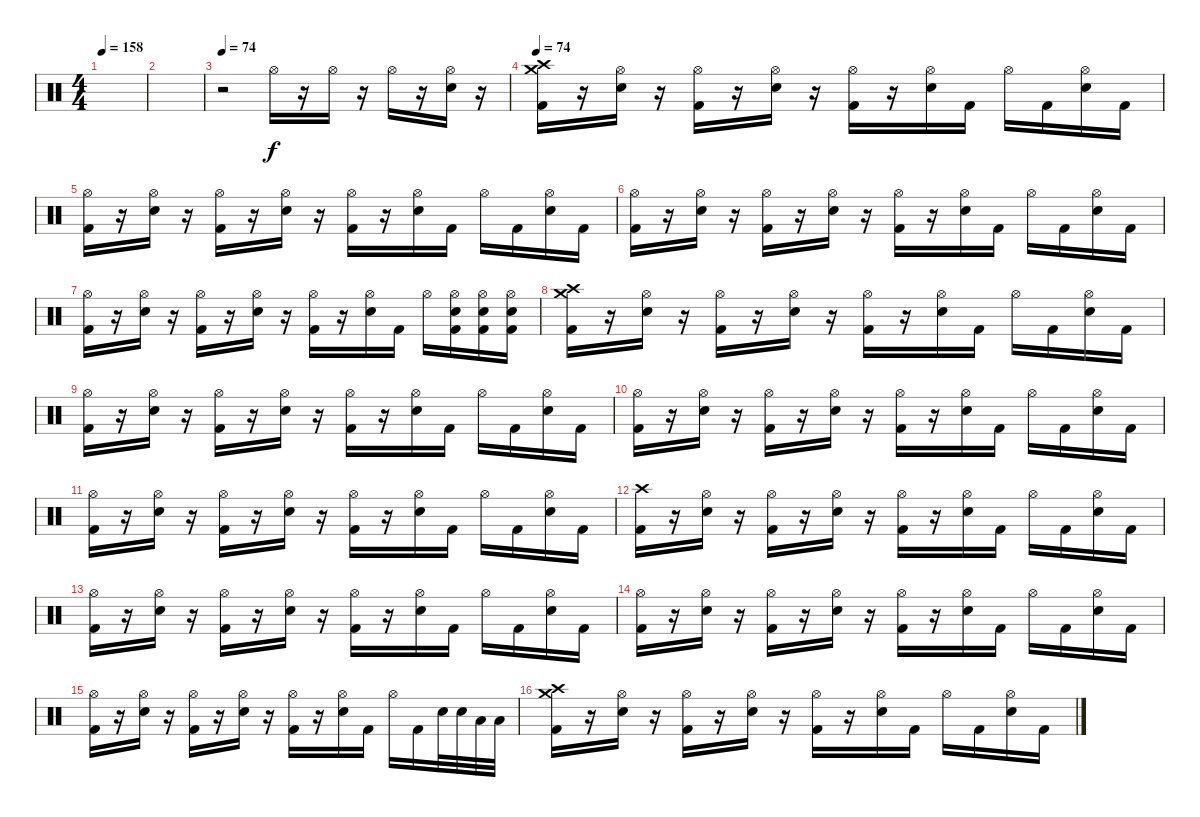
\track "" {instrument percussion}
\staff {score}
\articulation defaults
\ts (4 4)
\tempo 158
\clef neutral
\ks c
|
|
\tempo 74
r.2 "Hi-Hat (open)".16 r.16 "Hi-Hat (open)".16 r.16 "Hi-Hat (open)".16 r.16 ("Hi-Hat (open)" "Electric Snare (hit)").16 r.16 |
\section ("" "")
\tempo 74
("Crash high (hit)" "Crash medium (hit)" "Kick (hit) 2").16 r.16 ("Hi-Hat (open)" "Electric Snare (hit)").16 r.16 ("Hi-Hat (open)" "Kick (hit) 2").16 r.16 ("Hi-Hat (open)" "Electric Snare (hit)").16 r.16 ("Hi-Hat (open)" "Kick (hit) 2").16 r.16 ("Hi-Hat (open)" "Electric Snare (hit)").16 "Kick (hit) 2".16 "Hi-Hat (open)".16 "Kick (hit) 2".16 ("Hi-Hat (open)" "Electric Snare (hit)").16 "Kick (hit) 2".16 |
("Hi-Hat (open)" "Kick (hit) 2").16 r.16 ("Hi-Hat (open)" "Electric Snare (hit)").16 r.16 ("Hi-Hat (open)" "Kick (hit) 2").16 r.16 ("Hi-Hat (open)" "Electric Snare (hit)").16 r.16 ("Hi-Hat (open)" "Kick (hit) 2").16 r.16 ("Hi-Hat (open)" "Electric Snare (hit)").16 "Kick (hit) 2".16 "Hi-Hat (open)".16 "Kick (hit) 2".16 ("Hi-Hat (open)" "Electric Snare (hit)").16 "Kick (hit) 2".16 |
("Hi-Hat (open)" "Kick (hit) 2").16 r.16 ("Hi-Hat (open)" "Electric Snare (hit)").16 r.16 ("Hi-Hat (open)" "Kick (hit) 2").16 r.16 ("Hi-Hat (open)" "Electric Snare (hit)").16 r.16 ("Hi-Hat (open)" "Kick (hit) 2").16 r.16 ("Hi-Hat (open)" "Electric Snare (hit)").16 "Kick (hit) 2".16 "Hi-Hat (open)".16 "Kick (hit) 2".16 ("Hi-Hat (open)" "Electric Snare (hit)").16 "Kick (hit) 2".16 |
("Hi-Hat (open)" "Kick (hit) 2").16 r.16 ("Hi-Hat (open)" "Electric Snare (hit)").16 r.16 ("Hi-Hat (open)" "Kick (hit) 2").16 r.16 ("Hi-Hat (open)" "Electric Snare (hit)").16 r.16 ("Hi-Hat (open)" "Kick (hit) 2").16 r.16 ("Hi-Hat (open)" "Electric Snare (hit)").16 "Kick (hit) 2".16 "Hi-Hat (open)".16 ("Hi-Hat (open)" "Electric Snare (hit)" "Kick (hit) 2").16 ("Hi-Hat (open)" "Electric Snare (hit)" "Kick (hit) 2").16 ("Hi-Hat (open)" "Electric Snare (hit)" "Kick (hit) 2").16 |
("Crash high (hit)" "Crash medium (hit)" "Kick (hit) 2").16 r.16 ("Hi-Hat (open)" "Electric Snare (hit)").16 r.16 ("Hi-Hat (open)" "Kick (hit) 2").16 r.16 ("Hi-Hat (open)" "Electric Snare (hit)").16 r.16 ("Hi-Hat (open)" "Kick (hit) 2").16 r.16 ("Hi-Hat (open)" "Electric Snare (hit)").16 "Kick (hit) 2".16 "Hi-Hat (open)".16 "Kick (hit) 2".16 ("Hi-Hat (open)" "Electric Snare (hit)").16 "Kick (hit) 2".16 |
("Hi-Hat (open)" "Kick (hit) 2").16 r.16 ("Hi-Hat (open)" "Electric Snare (hit)").16 r.16 ("Hi-Hat (open)" "Kick (hit) 2").16 r.16 ("Hi-Hat (open)" "Electric Snare (hit)").16 r.16 ("Hi-Hat (open)" "Kick (hit) 2").16 r.16 ("Hi-Hat (open)" "Electric Snare (hit)").16 "Kick (hit) 2".16 "Hi-Hat (open)".16 "Kick (hit) 2".16 ("Hi-Hat (open)" "Electric Snare (hit)").16 "Kick (hit) 2".16 |
("Hi-Hat (open)" "Kick (hit) 2").16 r.16 ("Hi-Hat (open)" "Electric Snare (hit)").16 r.16 ("Hi-Hat (open)" "Kick (hit) 2").16 r.16 ("Hi-Hat (open)" "Electric Snare (hit)").16 r.16 ("Hi-Hat (open)" "Kick (hit) 2").16 r.16 ("Hi-Hat (open)" "Electric Snare (hit)").16 "Kick (hit) 2".16 "Hi-Hat (open)".16 "Kick (hit) 2".16 ("Hi-Hat (open)" "Electric Snare (hit)").16 "Kick (hit) 2".16 |
("Hi-Hat (open)" "Kick (hit) 2").16 r.16 ("Hi-Hat (open)" "Electric Snare (hit)").16 r.16 ("Hi-Hat (open)" "Kick (hit) 2").16 r.16 ("Hi-Hat (open)" "Electric Snare (hit)").16 r.16 ("Hi-Hat (open)" "Kick (hit) 2").16 r.16 ("Hi-Hat (open)" "Electric Snare (hit)").16 "Kick (hit) 2".16 "Hi-Hat (open)".16 "Kick (hit) 2".16 ("Hi-Hat (open)" "Electric Snare (hit)").16 "Kick (hit) 2".16 |
("Crash high (hit)" "Kick (hit) 2").16 r.16 ("Hi-Hat (open)" "Electric Snare (hit)").16 r.16 ("Hi-Hat (open)" "Kick (hit) 2").16 r.16 ("Hi-Hat (open)" "Electric Snare (hit)").16 r.16 ("Hi-Hat (open)" "Kick (hit) 2").16 r.16 ("Hi-Hat (open)" "Electric Snare (hit)").16 "Kick (hit) 2".16 "Hi-Hat (open)".16 "Kick (hit) 2".16 ("Hi-Hat (open)" "Electric Snare (hit)").16 "Kick (hit) 2".16 |
("Hi-Hat (open)" "Kick (hit) 2").16 r.16 ("Hi-Hat (open)" "Electric Snare (hit)").16 r.16 ("Hi-Hat (open)" "Kick (hit) 2").16 r.16 ("Hi-Hat (open)" "Electric Snare (hit)").16 r.16 ("Hi-Hat (open)" "Kick (hit) 2").16 r.16 ("Hi-Hat (open)" "Electric Snare (hit)").16 "Kick (hit) 2".16 "Hi-Hat (open)".16 "Kick (hit) 2".16 ("Hi-Hat (open)" "Electric Snare (hit)").16 "Kick (hit) 2".16 |
("Hi-Hat (open)" "Kick (hit) 2").16 r.16 ("Hi-Hat (open)" "Electric Snare (hit)").16 r.16 ("Hi-Hat (open)" "Kick (hit) 2").16 r.16 ("Hi-Hat (open)" "Electric Snare (hit)").16 r.16 ("Hi-Hat (open)" "Kick (hit) 2").16 r.16 ("Hi-Hat (open)" "Electric Snare (hit)").16 "Kick (hit) 2".16 "Hi-Hat (open)".16 "Kick (hit) 2".16 ("Hi-Hat (open)" "Electric Snare (hit)").16 "Kick (hit) 2".16 |
("Hi-Hat (open)" "Kick (hit) 2").16 r.16 ("Hi-Hat (open)" "Electric Snare (hit)").16 r.16 ("Hi-Hat (open)" "Kick (hit) 2").16 r.16 ("Hi-Hat (open)" "Electric Snare (hit)").16 r.16 ("Hi-Hat (open)" "Kick (hit) 2").16 r.16 ("Hi-Hat (open)" "Electric Snare (hit)").16 "Kick (hit) 2".16 "Hi-Hat (open)".16 "Kick (hit) 2".16 "Electric Snare (hit)".32 "Electric Snare (hit)".32 "Low Tom (hit)".32 "Low Tom (hit)".32 |
("Crash high (hit)" "Crash medium (hit)" "Kick (hit) 2").16 r.16 ("Hi-Hat (open)" "Electric Snare (hit)").16 r.16 ("Hi-Hat (open)" "Kick (hit) 2").16 r.16 ("Hi-Hat (open)" "Electric Snare (hit)").16 r.16 ("Hi-Hat (open)" "Kick (hit) 2").16 r.16 ("Hi-Hat (open)" "Electric Snare (hit)").16 "Kick (hit) 2".16 "Hi-Hat (open)".16 "Kick (hit) 2".16 ("Hi-Hat (open)" "Electric Snare (hit)").16 "Kick (hit) 2".16
